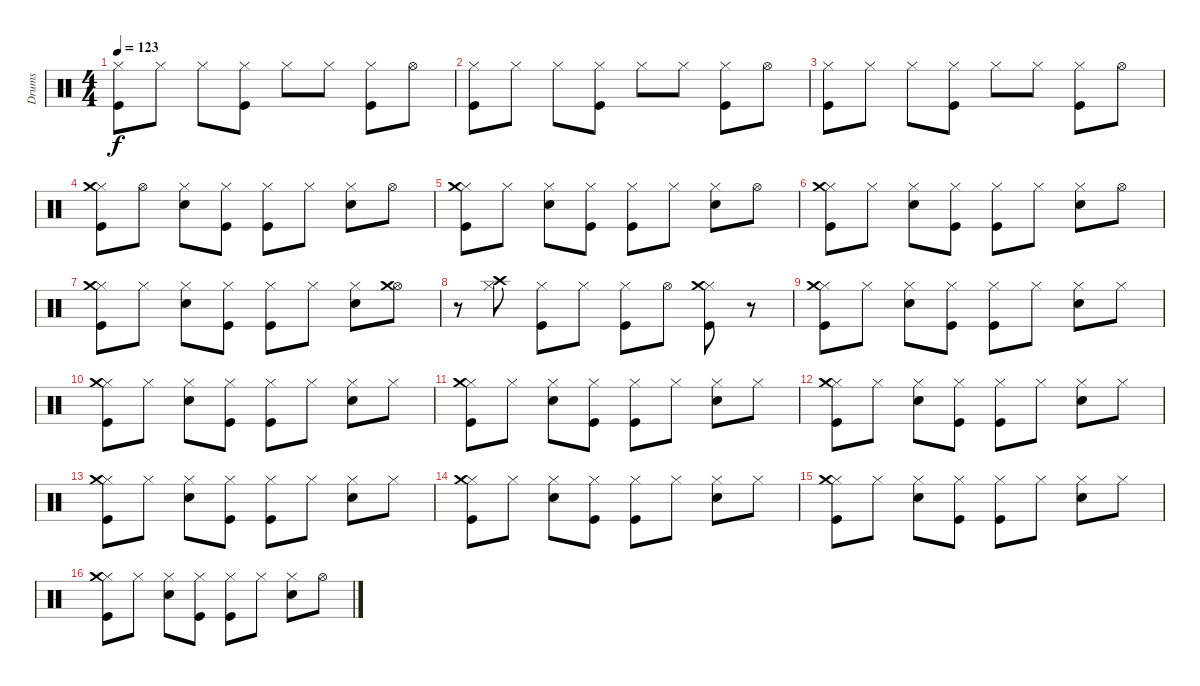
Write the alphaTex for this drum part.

\track ("Drums" "Drums") {instrument percussion}
\staff {score}
\articulation defaults
\ts (4 4)
\tempo 123
\clef neutral
\ks c
("Hi-Hat (closed)" "Kick (hit)").8{dy f} "Hi-Hat (closed)".8 "Hi-Hat (closed)".8 ("Hi-Hat (closed)" "Kick (hit)").8 "Hi-Hat (closed)".8 "Hi-Hat (closed)".8 ("Hi-Hat (closed)" "Kick (hit)").8 "Hi-Hat (open)".8 |
("Hi-Hat (closed)" "Kick (hit)").8 "Hi-Hat (closed)".8 "Hi-Hat (closed)".8 ("Hi-Hat (closed)" "Kick (hit)").8 "Hi-Hat (closed)".8 "Hi-Hat (closed)".8 ("Hi-Hat (closed)" "Kick (hit)").8 "Hi-Hat (open)".8 |
("Hi-Hat (closed)" "Kick (hit)").8 "Hi-Hat (closed)".8 "Hi-Hat (closed)".8 ("Hi-Hat (closed)" "Kick (hit)").8 "Hi-Hat (closed)".8 "Hi-Hat (closed)".8 ("Hi-Hat (closed)" "Kick (hit)").8 "Hi-Hat (open)".8 |
("Hi-Hat (closed)" "Crash medium (hit)" "Kick (hit)").8 "Hi-Hat (open)".8 ("Hi-Hat (closed)" "Snare (hit) 2").8 ("Hi-Hat (closed)" "Kick (hit)").8 ("Hi-Hat (closed)" "Kick (hit)").8 "Hi-Hat (closed)".8 ("Hi-Hat (closed)" "Snare (hit) 2").8 "Hi-Hat (open)".8 |
("Hi-Hat (closed)" "Crash medium (hit)" "Kick (hit)").8 "Hi-Hat (closed)".8 ("Hi-Hat (closed)" "Snare (hit) 2").8 ("Hi-Hat (closed)" "Kick (hit)").8 ("Hi-Hat (closed)" "Kick (hit)").8 "Hi-Hat (closed)".8 ("Hi-Hat (closed)" "Snare (hit) 2").8 "Hi-Hat (open)".8 |
("Hi-Hat (closed)" "Crash medium (hit)" "Kick (hit)").8 "Hi-Hat (closed)".8 ("Hi-Hat (closed)" "Snare (hit) 2").8 ("Hi-Hat (closed)" "Kick (hit)").8 ("Hi-Hat (closed)" "Kick (hit)").8 "Hi-Hat (closed)".8 ("Hi-Hat (closed)" "Snare (hit) 2").8 "Hi-Hat (open)".8 |
("Hi-Hat (closed)" "Crash medium (hit)" "Kick (hit)").8 "Hi-Hat (closed)".8 ("Hi-Hat (closed)" "Snare (hit) 2").8 ("Hi-Hat (closed)" "Kick (hit)").8 ("Hi-Hat (closed)" "Kick (hit)").8 "Hi-Hat (closed)".8 ("Hi-Hat (closed)" "Snare (hit) 2").8 ("Hi-Hat (open)" "Crash medium (hit)").8 |
r.8 ("Hi-Hat (closed)" "Crash high (hit)").8 ("Hi-Hat (closed)" "Kick (hit)").8 "Hi-Hat (closed)".8 ("Hi-Hat (closed)" "Kick (hit)").8 "Hi-Hat (open)".8 ("Hi-Hat (closed)" "Crash medium (hit)" "Kick (hit)").8 r.8 |
("Hi-Hat (closed)" "Crash medium (hit)" "Kick (hit)").8 "Hi-Hat (closed)".8 ("Hi-Hat (closed)" "Snare (hit) 2").8 ("Hi-Hat (closed)" "Kick (hit)").8 ("Hi-Hat (closed)" "Kick (hit)").8 "Hi-Hat (closed)".8 ("Hi-Hat (closed)" "Snare (hit) 2").8 "Hi-Hat (closed)".8 |
("Hi-Hat (closed)" "Crash medium (hit)" "Kick (hit)").8 "Hi-Hat (closed)".8 ("Hi-Hat (closed)" "Snare (hit) 2").8 ("Hi-Hat (closed)" "Kick (hit)").8 ("Hi-Hat (closed)" "Kick (hit)").8 "Hi-Hat (closed)".8 ("Hi-Hat (closed)" "Snare (hit) 2").8 "Hi-Hat (closed)".8 |
("Hi-Hat (closed)" "Crash medium (hit)" "Kick (hit)").8 "Hi-Hat (closed)".8 ("Hi-Hat (closed)" "Snare (hit) 2").8 ("Hi-Hat (closed)" "Kick (hit)").8 ("Hi-Hat (closed)" "Kick (hit)").8 "Hi-Hat (closed)".8 ("Hi-Hat (closed)" "Snare (hit) 2").8 "Hi-Hat (closed)".8 |
("Hi-Hat (closed)" "Crash medium (hit)" "Kick (hit)").8 "Hi-Hat (closed)".8 ("Hi-Hat (closed)" "Snare (hit) 2").8 ("Hi-Hat (closed)" "Kick (hit)").8 ("Hi-Hat (closed)" "Kick (hit)").8 "Hi-Hat (closed)".8 ("Hi-Hat (closed)" "Snare (hit) 2").8 "Hi-Hat (closed)".8 |
("Hi-Hat (closed)" "Crash medium (hit)" "Kick (hit)").8 "Hi-Hat (closed)".8 ("Hi-Hat (closed)" "Snare (hit) 2").8 ("Hi-Hat (closed)" "Kick (hit)").8 ("Hi-Hat (closed)" "Kick (hit)").8 "Hi-Hat (closed)".8 ("Hi-Hat (closed)" "Snare (hit) 2").8 "Hi-Hat (closed)".8 |
("Hi-Hat (closed)" "Crash medium (hit)" "Kick (hit)").8 "Hi-Hat (closed)".8 ("Hi-Hat (closed)" "Snare (hit) 2").8 ("Hi-Hat (closed)" "Kick (hit)").8 ("Hi-Hat (closed)" "Kick (hit)").8 "Hi-Hat (closed)".8 ("Hi-Hat (closed)" "Snare (hit) 2").8 "Hi-Hat (closed)".8 |
("Hi-Hat (closed)" "Crash medium (hit)" "Kick (hit)").8 "Hi-Hat (closed)".8 ("Hi-Hat (closed)" "Snare (hit) 2").8 ("Hi-Hat (closed)" "Kick (hit)").8 ("Hi-Hat (closed)" "Kick (hit)").8 "Hi-Hat (closed)".8 ("Hi-Hat (closed)" "Snare (hit) 2").8 "Hi-Hat (closed)".8 |
("Hi-Hat (closed)" "Crash medium (hit)" "Kick (hit)").8 "Hi-Hat (closed)".8 ("Hi-Hat (closed)" "Snare (hit) 2").8 ("Hi-Hat (closed)" "Kick (hit)").8 ("Hi-Hat (closed)" "Kick (hit)").8 "Hi-Hat (closed)".8 ("Hi-Hat (closed)" "Snare (hit) 2").8 "Hi-Hat (open)".8
